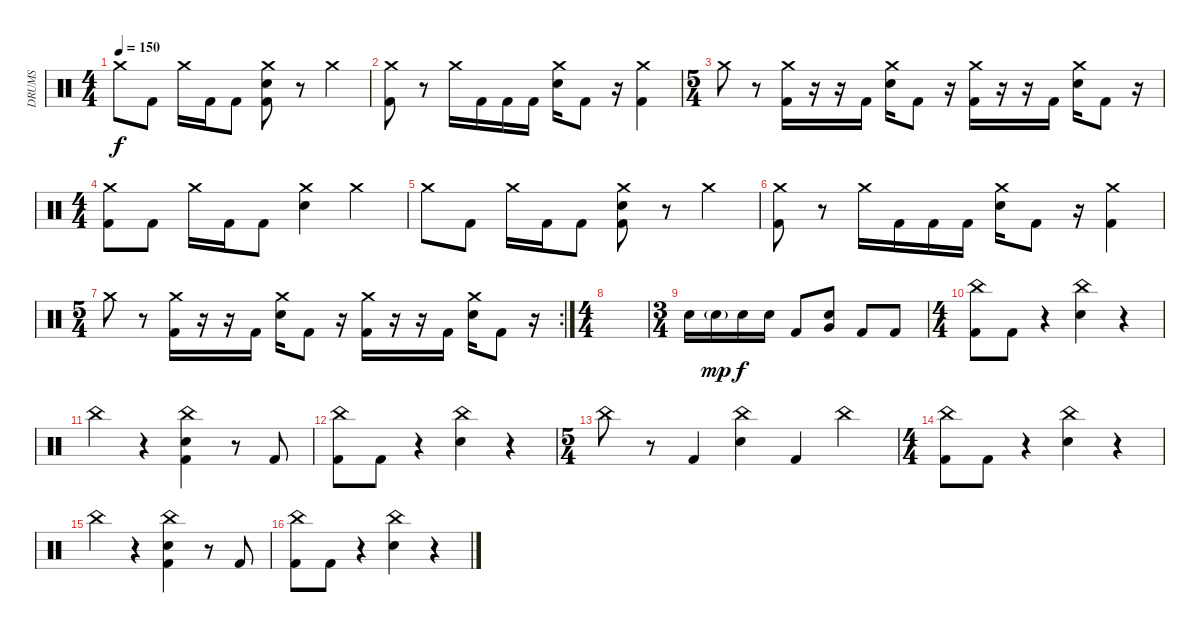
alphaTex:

\track ("DRUMS" "DRUMS") {instrument percussion}
\staff {score}
\articulation defaults
\ts (4 4)
\tempo 150
\clef neutral
\ks c "Crash medium (hit)".8{dy f} "Kick (hit) 2".8 "Crash medium (hit)".16 "Kick (hit) 2".16 "Kick (hit) 2".8
("Crash medium (hit)" "Electric Snare (hit)" "Kick (hit) 2").8 r.8 "Crash medium (hit)".4 |
("Crash medium (hit)" "Kick (hit) 2").8 r.8 "Crash medium (hit)".16 "Kick (hit) 2".16 "Kick (hit) 2".16 "Kick (hit) 2".16 ("Crash medium (hit)" "Electric Snare (hit)").16 "Kick (hit) 2".8 r.16 ("Crash medium (hit)" "Kick (hit) 2").4 |
\ts (5 4)
"Crash medium (hit)".8 r.8 ("Crash medium (hit)" "Kick (hit) 2").16 r.16 r.16 "Kick (hit) 2".16 ("Crash medium (hit)" "Electric Snare (hit)").16 "Kick (hit) 2".8 r.16 ("Crash medium (hit)" "Kick (hit) 2").16 r.16 r.16 "Kick (hit) 2".16 ("Crash medium (hit)" "Electric Snare (hit)").16 "Kick (hit) 2".8 r.16 |
\ts (4 4)
("Crash medium (hit)" "Kick (hit) 2").8 "Kick (hit) 2".8 "Crash medium (hit)".16 "Kick (hit) 2".16 "Kick (hit) 2".8 ("Crash medium (hit)" "Electric Snare (hit)").4 "Crash medium (hit)".4 |
"Crash medium (hit)".8 "Kick (hit) 2".8 "Crash medium (hit)".16 "Kick (hit) 2".16 "Kick (hit) 2".8 ("Crash medium (hit)" "Electric Snare (hit)" "Kick (hit) 2").8 r.8 "Crash medium (hit)".4 |
("Crash medium (hit)" "Kick (hit) 2").8 r.8 "Crash medium (hit)".16 "Kick (hit) 2".16 "Kick (hit) 2".16 "Kick (hit) 2".16 ("Crash medium (hit)" "Electric Snare (hit)").16 "Kick (hit) 2".8 r.16 ("Crash medium (hit)" "Kick (hit) 2").4 |
\rc 2
\ts (5 4)
"Crash medium (hit)".8 r.8 ("Crash medium (hit)" "Kick (hit) 2").16 r.16 r.16 "Kick (hit) 2".16 ("Crash medium (hit)" "Electric Snare (hit)").16 "Kick (hit) 2".8 r.16 ("Crash medium (hit)" "Kick (hit) 2").16 r.16 r.16 "Kick (hit) 2".16 ("Crash medium (hit)" "Electric Snare (hit)").16 "Kick (hit) 2".8 r.16 |
\ts (4 4)
|
\ts (3 4)
"Electric Snare (hit)".16 "Electric Snare (hit)"{g}.16{dy mp} "Electric Snare (hit)".16{dy f} "Electric Snare (hit)".16 "Kick (hit) 2".8 ("Very Low Tom (hit)" "Electric Snare (hit)").8 "Kick (hit) 2".8 "Kick (hit) 2".8 |
\ts (4 4)
("China (hit)" "Kick (hit) 2").8 "Kick (hit) 2".8 r.4 ("China (hit)" "Electric Snare (hit)").4 r.4 |
"China (hit)".4 r.4 ("China (hit)" "Electric Snare (hit)" "Kick (hit) 2").4 r.8 "Kick (hit) 2".8 |
("China (hit)" "Kick (hit) 2").8 "Kick (hit) 2".8 r.4 ("China (hit)" "Electric Snare (hit)").4 r.4 |
\ts (5 4)
"China (hit)".8 r.8 "Kick (hit) 2".4 ("China (hit)" "Electric Snare (hit)").4 "Kick (hit) 2".4 "China (hit)".4 |
\ts (4 4)
("China (hit)" "Kick (hit) 2").8 "Kick (hit) 2".8 r.4 ("China (hit)" "Electric Snare (hit)").4 r.4 |
"China (hit)".4 r.4 ("China (hit)" "Electric Snare (hit)" "Kick (hit) 2").4 r.8 "Kick (hit) 2".8 |
("China (hit)" "Kick (hit) 2").8 "Kick (hit) 2".8 r.4 ("China (hit)" "Electric Snare (hit)").4 r.4
